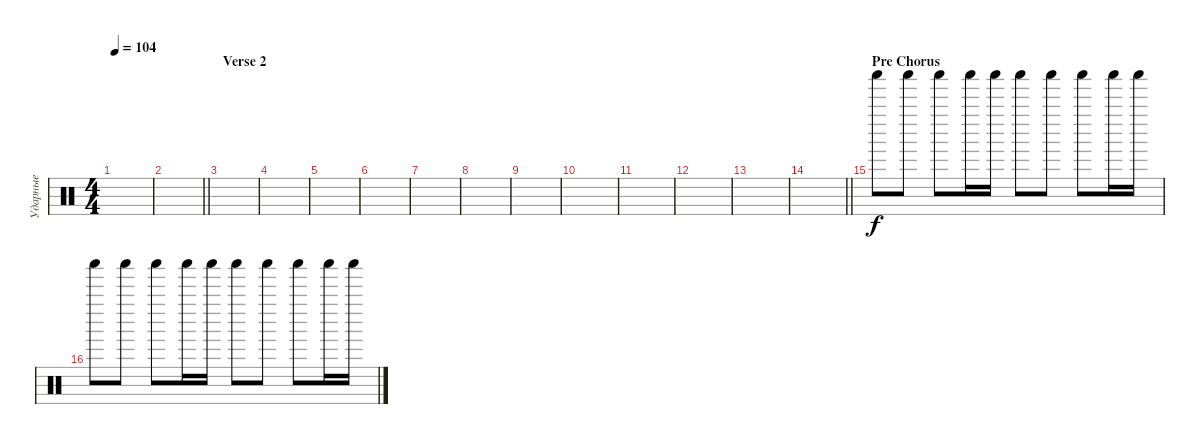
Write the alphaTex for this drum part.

\track ("Ударные" "Ударные") {instrument percussion}
\staff {score}
\articulation defaults
\ts (4 4)
\tempo 104
\clef neutral
\ks c
|
\barLineRight lightlight
|
\section ("" "Verse 2")
|
|
|
|
|
|
|
|
|
|
|
\barLineRight lightlight
|
\section ("" "Pre Chorus")
"Shaker (hit)".8 "Shaker (hit)".8 "Shaker (hit)".8 "Shaker (hit)".16 "Shaker (hit)".16 "Shaker (hit)".8 "Shaker (hit)".8 "Shaker (hit)".8 "Shaker (hit)".16 "Shaker (hit)".16 |
"Shaker (hit)".8 "Shaker (hit)".8 "Shaker (hit)".8 "Shaker (hit)".16 "Shaker (hit)".16 "Shaker (hit)".8 "Shaker (hit)".8 "Shaker (hit)".8 "Shaker (hit)".16 "Shaker (hit)".16
